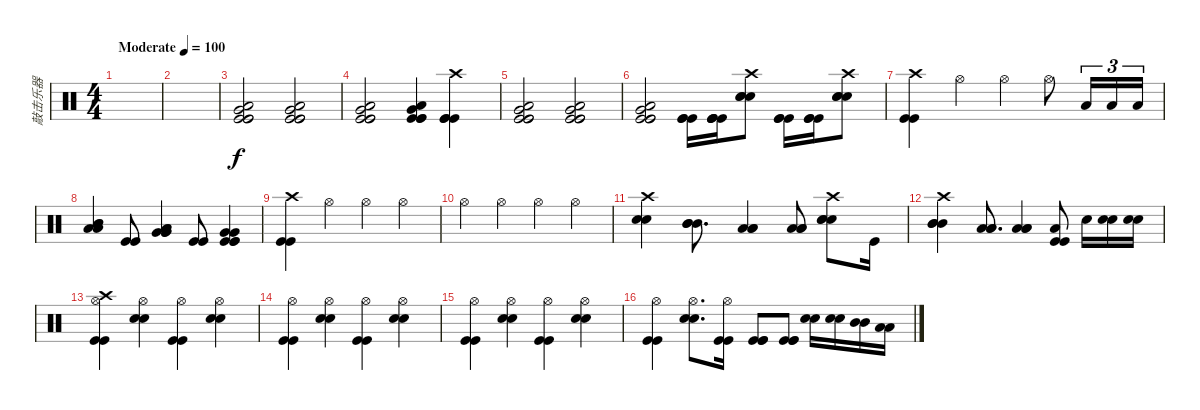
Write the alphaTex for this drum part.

\track ("敲击乐器" "敲击乐器") {instrument percussion}
\staff {score}
\articulation defaults
\ts (4 4)
\tempo (100 "Moderate")
\clef neutral
\ks c
|
|
("Low Floor Tom (hit)" "Very Low Tom (hit)" "Kick (hit)" "Kick (hit)" "Kick (hit)").2 ("Low Floor Tom (hit)" "Very Low Tom (hit)" "Kick (hit)" "Kick (hit)" "Kick (hit)").2 |
("Low Floor Tom (hit)" "Very Low Tom (hit)" "Kick (hit)" "Kick (hit)" "Kick (hit)").2 ("Low Floor Tom (hit)" "Very Low Tom (hit)" "Kick (hit)" "Kick (hit)" "Kick (hit)").4 ("Kick (hit)" "Kick (hit)" "Crash high (hit)" "Kick (hit)").4 |
("Low Floor Tom (hit)" "Very Low Tom (hit)" "Kick (hit)" "Kick (hit)" "Kick (hit)").2 ("Low Floor Tom (hit)" "Very Low Tom (hit)" "Kick (hit)" "Kick (hit)" "Kick (hit)").2 |
("Low Floor Tom (hit)" "Very Low Tom (hit)" "Kick (hit)" "Kick (hit)" "Kick (hit)").2 ("Kick (hit)" "Kick (hit)" "Kick (hit)").16 ("Kick (hit)" "Kick (hit)" "Kick (hit)" "Kick (hit)").16 ("Crash high (hit)" "Snare (hit) 2" "Snare (hit) 2" "Snare (hit) 2").8 ("Kick (hit)" "Kick (hit)" "Kick (hit)").16 ("Kick (hit)" "Kick (hit)" "Kick (hit)").16 ("Snare (hit) 2" "Snare (hit) 2" "Snare (hit) 2" "Crash high (hit)").8 |
("Kick (hit)" "Kick (hit)" "Crash high (hit)").4 "Hi-Hat (open)".4 "Hi-Hat (open)".4 "Hi-Hat (open)".8 "Low Tom (hit)".16{tu (3 2)} "Low Tom (hit)".16{tu (3 2)} "Low Tom (hit)".16{tu (3 2)} |
("Mid Tom (hit)" "Mid Tom (hit)" "Low Tom (hit)" "Low Tom (hit)").4 ("Kick (hit)" "Kick (hit)").8 ("Low Tom (hit)" "Low Tom (hit)" "Very Low Tom (hit)" "Very Low Tom (hit)" "Very Low Tom (hit)").4 ("Kick (hit)" "Kick (hit)").8 ("Kick (hit)" "Kick (hit)" "Kick (hit)" "Very Low Tom (hit)" "Very Low Tom (hit)").4 |
("Kick (hit)" "Kick (hit)" "Crash high (hit)").4 "Hi-Hat (open)".4 "Hi-Hat (open)".4 "Hi-Hat (open)".4 |
"Hi-Hat (open)".4 "Hi-Hat (open)".4 "Hi-Hat (open)".4 "Hi-Hat (open)".4 |
("Crash high (hit)" "Snare (hit) 2" "Snare (hit) 2").4 ("Mid Tom (hit)" "Mid Tom (hit)" "Mid Tom (hit)").8{d} ("Low Tom (hit)" "Low Tom (hit)" "Low Tom (hit)").4 ("Low Tom (hit)" "Low Tom (hit)" "Low Tom (hit)").8 ("Crash high (hit)" "Snare (hit) 2" "Snare (hit) 2" "Snare (hit) 2").8 "Kick (hit)".16 |
("Crash high (hit)" "Mid Tom (hit)" "Mid Tom (hit)" "Mid Tom (hit)").4 ("Low Tom (hit)" "Low Tom (hit)" "Low Tom (hit)").8{d} ("Low Tom (hit)" "Low Tom (hit)" "Low Tom (hit)").4 ("Low Tom (hit)" "Kick (hit)" "Kick (hit)").8 "Snare (hit) 2".16 ("Snare (hit) 2" "Snare (hit) 2").16 ("Snare (hit) 2" "Snare (hit) 2").16 |
("Hi-Hat (open)" "Crash high (hit)" "Kick (hit)" "Kick (hit)").4 ("Hi-Hat (open)" "Snare (hit) 2" "Snare (hit) 2").4 ("Hi-Hat (open)" "Kick (hit)" "Kick (hit)").4 ("Hi-Hat (open)" "Snare (hit) 2" "Snare (hit) 2").4 |
("Hi-Hat (open)" "Kick (hit)" "Kick (hit)").4 ("Hi-Hat (open)" "Snare (hit) 2" "Snare (hit) 2").4 ("Hi-Hat (open)" "Kick (hit)" "Kick (hit)").4 ("Hi-Hat (open)" "Snare (hit) 2" "Snare (hit) 2").4 |
("Hi-Hat (open)" "Kick (hit)" "Kick (hit)").4 ("Hi-Hat (open)" "Snare (hit) 2" "Snare (hit) 2").4 ("Hi-Hat (open)" "Kick (hit)" "Kick (hit)").4 ("Hi-Hat (open)" "Snare (hit) 2" "Snare (hit) 2").4 |
("Hi-Hat (open)" "Kick (hit)" "Kick (hit)").4 ("Hi-Hat (open)" "Snare (hit) 2" "Snare (hit) 2").8{d} ("Hi-Hat (open)" "Kick (hit)" "Kick (hit)").16 ("Kick (hit)" "Kick (hit)" "Kick (hit)").8 ("Kick (hit)" "Kick (hit)" "Kick (hit)").8 ("Snare (hit) 2" "Snare (hit) 2").16 ("Snare (hit) 2" "Snare (hit) 2").16 ("Mid Tom (hit)" "Mid Tom (hit)").16 ("Low Tom (hit)" "Low Tom (hit)").16
